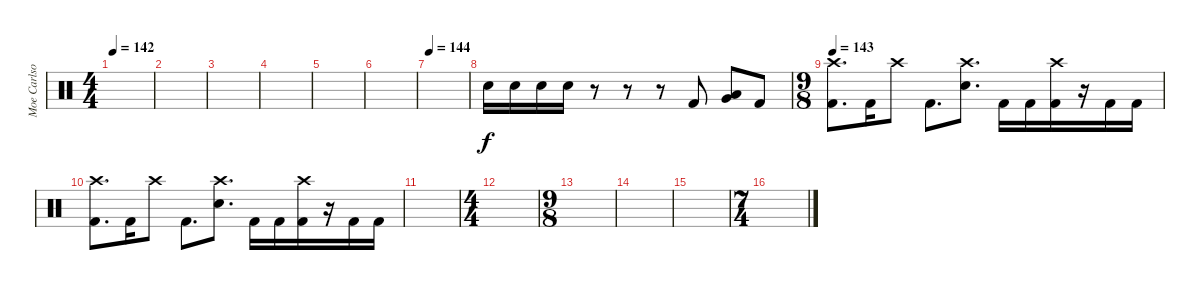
\track ("Moe Carlson" "Moe Carlso") {solo instrument percussion}
\staff {score}
\articulation defaults
\ts (4 4)
\tempo 142
\clef neutral
\ks c
|
|
|
|
|
|
\tempo 144
|
"Electric Snare (hit)".16 "Electric Snare (hit)".16 "Electric Snare (hit)".16 "Electric Snare (hit)".16 r.8 r.8 r.8 "Kick (hit) 2".8 ("Low Tom (hit)" "Very Low Tom (hit)").8 "Kick (hit) 2".8 |
\ts (9 8)
\tempo 143
("Crash high (hit)" "Kick (hit) 2").8{d} "Kick (hit) 2".16 "Crash high (hit)".8 "Kick (hit) 2".8{d} ("Crash high (hit)" "Electric Snare (hit)").8{d} "Kick (hit) 2".16 "Kick (hit) 2".16 ("Crash high (hit)" "Kick (hit) 2").16 r.16 "Kick (hit) 2".16 "Kick (hit) 2".16 |
("Crash high (hit)" "Kick (hit) 2").8{d} "Kick (hit) 2".16 "Crash high (hit)".8 "Kick (hit) 2".8{d} ("Crash high (hit)" "Electric Snare (hit)").8{d} "Kick (hit) 2".16 "Kick (hit) 2".16 ("Crash high (hit)" "Kick (hit) 2").16 r.16 "Kick (hit) 2".16 "Kick (hit) 2".16 |
|
\ts (4 4)
|
\ts (9 8)
|
|
|
\ts (7 4)
